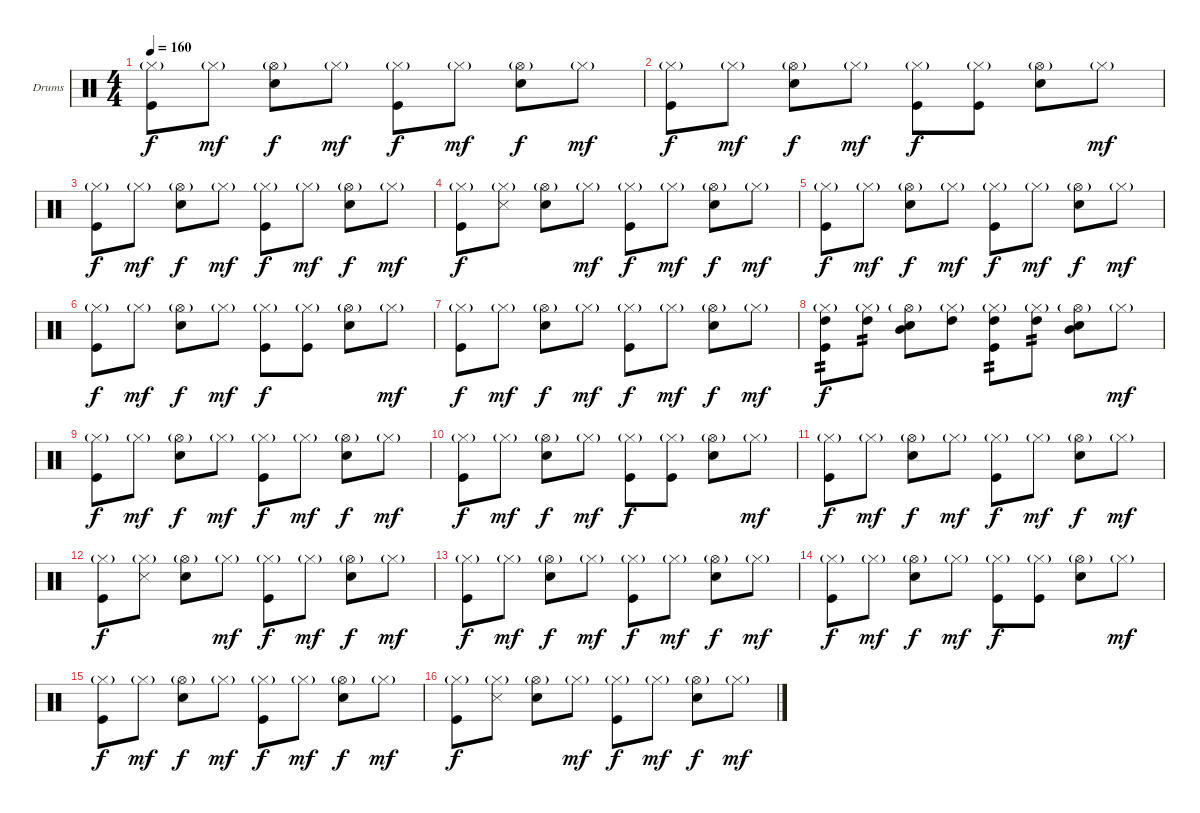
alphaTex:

\bracketExtendMode groupsimilarinstruments
\firstSystemTrackNameOrientation horizontal
\otherSystemsTrackNameOrientation horizontal
\track ("Гурьянов" "Drums") {instrument percussion}
\staff {score}
\articulation defaults
\ts (4 4)
\tempo 160
\clef neutral
\scale
0.333333
\ks c
("Hi-Hat (closed)"{g} "Kick (hit)").8{dy f} "Hi-Hat (closed)"{g}.8{dy mf} ("Hi-Hat (open)"{g} "Snare (hit) 2").8{dy f} "Hi-Hat (closed)"{g}.8{dy mf} ("Hi-Hat (closed)"{g} "Kick (hit)").8{dy f} "Hi-Hat (closed)"{g}.8{dy mf} ("Hi-Hat (open)"{g} "Snare (hit) 2").8{dy f} "Hi-Hat (closed)"{g}.8{dy mf} |
\scale
0.333333 ("Hi-Hat (closed)"{g} "Kick (hit)").8{dy f} "Hi-Hat (closed)"{g}.8{dy mf} ("Hi-Hat (open)"{g} "Snare (hit) 2").8{dy f} "Hi-Hat (closed)"{g}.8{dy mf} ("Hi-Hat (closed)"{g} "Kick (hit)").8{dy f} ("Hi-Hat (closed)"{g} "Kick (hit)").8 ("Hi-Hat (open)"{g} "Snare (hit) 2").8 "Hi-Hat (closed)"{g}.8{dy mf} |
\scale
0.333333 ("Hi-Hat (closed)"{g} "Kick (hit)").8{dy f} "Hi-Hat (closed)"{g}.8{dy mf} ("Hi-Hat (open)"{g} "Snare (hit) 2").8{dy f} "Hi-Hat (closed)"{g}.8{dy mf} ("Hi-Hat (closed)"{g} "Kick (hit)").8{dy f} "Hi-Hat (closed)"{g}.8{dy mf} ("Hi-Hat (open)"{g} "Snare (hit) 2").8{dy f} "Hi-Hat (closed)"{g}.8{dy mf} |
\scale
0.333333 ("Hi-Hat (closed)"{g} "Kick (hit)").8{dy f} ("Hi-Hat (closed)"{g} "Snare (side stick) 3").8 ("Hi-Hat (open)"{g} "Snare (hit) 2").8 "Hi-Hat (closed)"{g}.8{dy mf} ("Hi-Hat (closed)"{g} "Kick (hit)").8{dy f} "Hi-Hat (closed)"{g}.8{dy mf} ("Hi-Hat (open)"{g} "Snare (hit) 2").8{dy f} "Hi-Hat (closed)"{g}.8{dy mf} |
\scale
0.333333 ("Hi-Hat (closed)"{g} "Kick (hit)").8{dy f} "Hi-Hat (closed)"{g}.8{dy mf} ("Hi-Hat (open)"{g} "Snare (hit) 2").8{dy f} "Hi-Hat (closed)"{g}.8{dy mf} ("Hi-Hat (closed)"{g} "Kick (hit)").8{dy f} "Hi-Hat (closed)"{g}.8{dy mf} ("Hi-Hat (open)"{g} "Snare (hit) 2").8{dy f} "Hi-Hat (closed)"{g}.8{dy mf} |
\scale
0.333333 ("Hi-Hat (closed)"{g} "Kick (hit)").8{dy f} "Hi-Hat (closed)"{g}.8{dy mf} ("Hi-Hat (open)"{g} "Snare (hit) 2").8{dy f} "Hi-Hat (closed)"{g}.8{dy mf} ("Hi-Hat (closed)"{g} "Kick (hit)").8{dy f} ("Hi-Hat (closed)"{g} "Kick (hit)").8 ("Hi-Hat (open)"{g} "Snare (hit) 2").8 "Hi-Hat (closed)"{g}.8{dy mf} |
\scale
0.333333 ("Hi-Hat (closed)"{g} "Kick (hit)").8{dy f} "Hi-Hat (closed)"{g}.8{dy mf} ("Hi-Hat (open)"{g} "Snare (hit) 2").8{dy f} "Hi-Hat (closed)"{g}.8{dy mf} ("Hi-Hat (closed)"{g} "Kick (hit)").8{dy f} "Hi-Hat (closed)"{g}.8{dy mf} ("Hi-Hat (open)"{g} "Snare (hit) 2").8{dy f} "Hi-Hat (closed)"{g}.8{dy mf} |
\scale
0.333333 ("Hi-Hat (closed)"{g} "High Tom (hit)" "Kick (hit)").8{tp 2 dy f} ("Hi-Hat (closed)"{g} "High Tom (hit)").8{tp 2} ("Hi-Hat (open)"{g} "Mid Tom (hit)" "Snare (hit) 2").8 ("Hi-Hat (closed)"{g} "High Tom (hit)").8 ("Hi-Hat (closed)"{g} "High Tom (hit)" "Kick (hit)").8{tp 2} ("Hi-Hat (closed)"{g} "High Tom (hit)").8{tp 2} ("Hi-Hat (open)"{g} "Mid Tom (hit)" "Snare (hit) 2").8 "Hi-Hat (closed)"{g}.8{dy mf} |
\scale
0.333333 ("Hi-Hat (closed)"{g} "Kick (hit)").8{dy f} "Hi-Hat (closed)"{g}.8{dy mf} ("Hi-Hat (open)"{g} "Snare (hit) 2").8{dy f} "Hi-Hat (closed)"{g}.8{dy mf} ("Hi-Hat (closed)"{g} "Kick (hit)").8{dy f} "Hi-Hat (closed)"{g}.8{dy mf} ("Hi-Hat (open)"{g} "Snare (hit) 2").8{dy f} "Hi-Hat (closed)"{g}.8{dy mf} |
\scale
0.333333 ("Hi-Hat (closed)"{g} "Kick (hit)").8{dy f} "Hi-Hat (closed)"{g}.8{dy mf} ("Hi-Hat (open)"{g} "Snare (hit) 2").8{dy f} "Hi-Hat (closed)"{g}.8{dy mf} ("Hi-Hat (closed)"{g} "Kick (hit)").8{dy f} ("Hi-Hat (closed)"{g} "Kick (hit)").8 ("Hi-Hat (open)"{g} "Snare (hit) 2").8 "Hi-Hat (closed)"{g}.8{dy mf} |
\scale
0.333333 ("Hi-Hat (closed)"{g} "Kick (hit)").8{dy f} "Hi-Hat (closed)"{g}.8{dy mf} ("Hi-Hat (open)"{g} "Snare (hit) 2").8{dy f} "Hi-Hat (closed)"{g}.8{dy mf} ("Hi-Hat (closed)"{g} "Kick (hit)").8{dy f} "Hi-Hat (closed)"{g}.8{dy mf} ("Hi-Hat (open)"{g} "Snare (hit) 2").8{dy f} "Hi-Hat (closed)"{g}.8{dy mf} |
\scale
0.333333 ("Hi-Hat (closed)"{g} "Kick (hit)").8{dy f} ("Hi-Hat (closed)"{g} "Snare (side stick) 3").8 ("Hi-Hat (open)"{g} "Snare (hit) 2").8 "Hi-Hat (closed)"{g}.8{dy mf} ("Hi-Hat (closed)"{g} "Kick (hit)").8{dy f} "Hi-Hat (closed)"{g}.8{dy mf} ("Hi-Hat (open)"{g} "Snare (hit) 2").8{dy f} "Hi-Hat (closed)"{g}.8{dy mf} |
\scale
0.333333 ("Hi-Hat (closed)"{g} "Kick (hit)").8{dy f} "Hi-Hat (closed)"{g}.8{dy mf} ("Hi-Hat (open)"{g} "Snare (hit) 2").8{dy f} "Hi-Hat (closed)"{g}.8{dy mf} ("Hi-Hat (closed)"{g} "Kick (hit)").8{dy f} "Hi-Hat (closed)"{g}.8{dy mf} ("Hi-Hat (open)"{g} "Snare (hit) 2").8{dy f} "Hi-Hat (closed)"{g}.8{dy mf} |
\scale
0.333333 ("Hi-Hat (closed)"{g} "Kick (hit)").8{dy f} "Hi-Hat (closed)"{g}.8{dy mf} ("Hi-Hat (open)"{g} "Snare (hit) 2").8{dy f} "Hi-Hat (closed)"{g}.8{dy mf} ("Hi-Hat (closed)"{g} "Kick (hit)").8{dy f} ("Hi-Hat (closed)"{g} "Kick (hit)").8 ("Hi-Hat (open)"{g} "Snare (hit) 2").8 "Hi-Hat (closed)"{g}.8{dy mf} |
\scale
0.333333 ("Hi-Hat (closed)"{g} "Kick (hit)").8{dy f} "Hi-Hat (closed)"{g}.8{dy mf} ("Hi-Hat (open)"{g} "Snare (hit) 2").8{dy f} "Hi-Hat (closed)"{g}.8{dy mf} ("Hi-Hat (closed)"{g} "Kick (hit)").8{dy f} "Hi-Hat (closed)"{g}.8{dy mf} ("Hi-Hat (open)"{g} "Snare (hit) 2").8{dy f} "Hi-Hat (closed)"{g}.8{dy mf} |
\scale
0.333333 ("Hi-Hat (closed)"{g} "Kick (hit)").8{dy f} ("Hi-Hat (closed)"{g} "Snare (side stick) 3").8 ("Hi-Hat (open)"{g} "Snare (hit) 2").8 "Hi-Hat (closed)"{g}.8{dy mf} ("Hi-Hat (closed)"{g} "Kick (hit)").8{dy f} "Hi-Hat (closed)"{g}.8{dy mf} ("Hi-Hat (open)"{g} "Snare (hit) 2").8{dy f} "Hi-Hat (closed)"{g}.8{dy mf}
